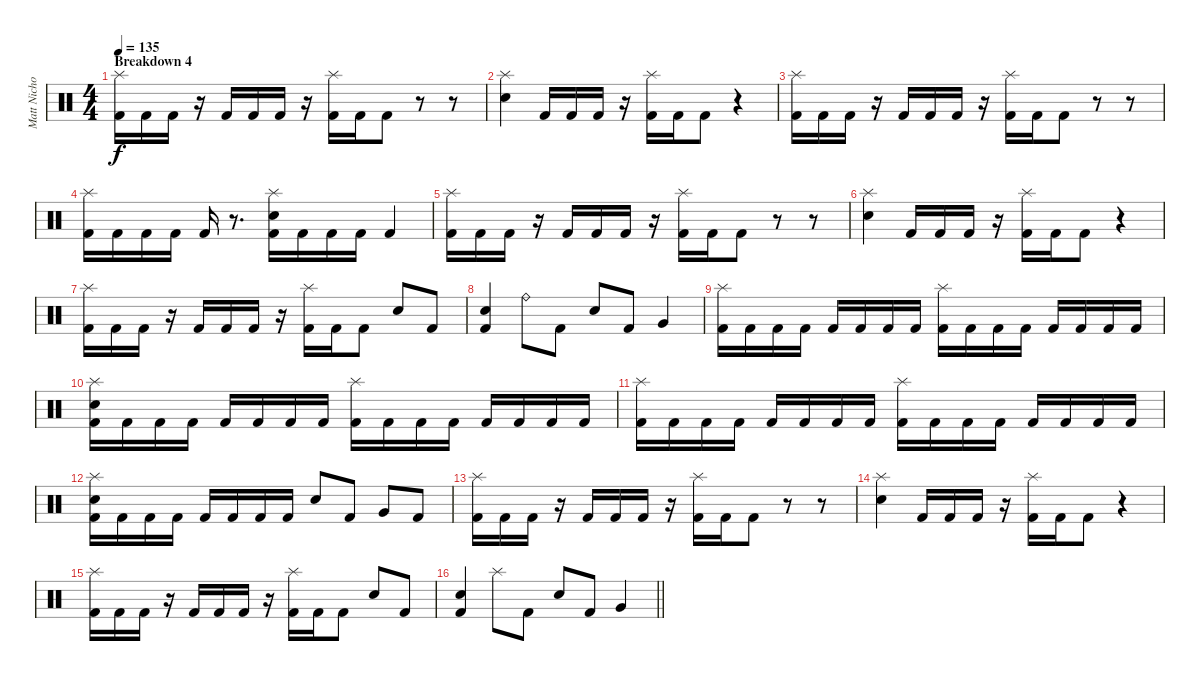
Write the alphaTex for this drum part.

\track ("Matt Nicholls" "Matt Nicho") {instrument percussion}
\staff {score}
\articulation defaults
\ts (4 4)
\section ("" "Breakdown 4")
\tempo 135
\clef neutral
\ks c
("Splash (hit)" "Kick (hit) 2").16{dy f} "Kick (hit) 2".16 "Kick (hit) 2".16 r.16 "Kick (hit) 2".16 "Kick (hit) 2".16 "Kick (hit) 2".16 r.16 ("Splash (hit)" "Kick (hit) 2").16 "Kick (hit) 2".16 "Kick (hit) 2".8 r.8 r.8 |
("Splash (hit)" "Snare (hit) 2").4 "Kick (hit) 2".16 "Kick (hit) 2".16 "Kick (hit) 2".16 r.16 ("Splash (hit)" "Kick (hit) 2").16 "Kick (hit) 2".16 "Kick (hit) 2".8 r.4 |
("Splash (hit)" "Kick (hit) 2").16 "Kick (hit) 2".16 "Kick (hit) 2".16 r.16 "Kick (hit) 2".16 "Kick (hit) 2".16 "Kick (hit) 2".16 r.16 ("Splash (hit)" "Kick (hit) 2").16 "Kick (hit) 2".16 "Kick (hit) 2".8 r.8 r.8 |
("Splash (hit)" "Kick (hit) 2").16 "Kick (hit) 2".16 "Kick (hit) 2".16 "Kick (hit) 2".16 "Kick (hit) 2".16 r.8{d} ("Splash (hit)" "Snare (hit) 2" "Kick (hit) 2").16 "Kick (hit) 2".16 "Kick (hit) 2".16 "Kick (hit) 2".16 "Kick (hit) 2".4 |
("Splash (hit)" "Kick (hit) 2").16 "Kick (hit) 2".16 "Kick (hit) 2".16 r.16 "Kick (hit) 2".16 "Kick (hit) 2".16 "Kick (hit) 2".16 r.16 ("Splash (hit)" "Kick (hit) 2").16 "Kick (hit) 2".16 "Kick (hit) 2".8 r.8 r.8 |
("Splash (hit)" "Snare (hit) 2").4 "Kick (hit) 2".16 "Kick (hit) 2".16 "Kick (hit) 2".16 r.16 ("Splash (hit)" "Kick (hit) 2").16 "Kick (hit) 2".16 "Kick (hit) 2".8 r.4 |
("Splash (hit)" "Kick (hit) 2").16 "Kick (hit) 2".16 "Kick (hit) 2".16 r.16 "Kick (hit) 2".16 "Kick (hit) 2".16 "Kick (hit) 2".16 r.16 ("Splash (hit)" "Kick (hit) 2").16 "Kick (hit) 2".16 "Kick (hit) 2".8 "Snare (hit) 2".8 "Kick (hit) 2".8 |
("Snare (hit) 2" "Kick (hit) 2").4 "Ride (bell)".8 "Kick (hit) 2".8 "Snare (hit) 2".8 "Kick (hit) 2".8 "Very Low Tom (hit)".4 |
("Splash (hit)" "Kick (hit) 2").16 "Kick (hit) 2".16 "Kick (hit) 2".16 "Kick (hit) 2".16 "Kick (hit) 2".16 "Kick (hit) 2".16 "Kick (hit) 2".16 "Kick (hit) 2".16 ("Splash (hit)" "Kick (hit) 2").16 "Kick (hit) 2".16 "Kick (hit) 2".16 "Kick (hit) 2".16 "Kick (hit) 2".16 "Kick (hit) 2".16 "Kick (hit) 2".16 "Kick (hit) 2".16 |
("Splash (hit)" "Snare (hit) 2" "Kick (hit) 2").16 "Kick (hit) 2".16 "Kick (hit) 2".16 "Kick (hit) 2".16 "Kick (hit) 2".16 "Kick (hit) 2".16 "Kick (hit) 2".16 "Kick (hit) 2".16 ("Splash (hit)" "Kick (hit) 2").16 "Kick (hit) 2".16 "Kick (hit) 2".16 "Kick (hit) 2".16 "Kick (hit) 2".16 "Kick (hit) 2".16 "Kick (hit) 2".16 "Kick (hit) 2".16 |
("Splash (hit)" "Kick (hit) 2").16 "Kick (hit) 2".16 "Kick (hit) 2".16 "Kick (hit) 2".16 "Kick (hit) 2".16 "Kick (hit) 2".16 "Kick (hit) 2".16 "Kick (hit) 2".16 ("Splash (hit)" "Kick (hit) 2").16 "Kick (hit) 2".16 "Kick (hit) 2".16 "Kick (hit) 2".16 "Kick (hit) 2".16 "Kick (hit) 2".16 "Kick (hit) 2".16 "Kick (hit) 2".16 |
("Splash (hit)" "Snare (hit) 2" "Kick (hit) 2").16 "Kick (hit) 2".16 "Kick (hit) 2".16 "Kick (hit) 2".16 "Kick (hit) 2".16 "Kick (hit) 2".16 "Kick (hit) 2".16 "Kick (hit) 2".16 "Snare (hit) 2".8 "Kick (hit) 2".8 "Very Low Tom (hit)".8 "Kick (hit) 2".8 |
("Splash (hit)" "Kick (hit) 2").16 "Kick (hit) 2".16 "Kick (hit) 2".16 r.16 "Kick (hit) 2".16 "Kick (hit) 2".16 "Kick (hit) 2".16 r.16 ("Splash (hit)" "Kick (hit) 2").16 "Kick (hit) 2".16 "Kick (hit) 2".8 r.8 r.8 |
("Splash (hit)" "Snare (hit) 2").4 "Kick (hit) 2".16 "Kick (hit) 2".16 "Kick (hit) 2".16 r.16 ("Splash (hit)" "Kick (hit) 2").16 "Kick (hit) 2".16 "Kick (hit) 2".8 r.4 |
("Splash (hit)" "Kick (hit) 2").16 "Kick (hit) 2".16 "Kick (hit) 2".16 r.16 "Kick (hit) 2".16 "Kick (hit) 2".16 "Kick (hit) 2".16 r.16 ("Splash (hit)" "Kick (hit) 2").16 "Kick (hit) 2".16 "Kick (hit) 2".8 "Snare (hit) 2".8 "Kick (hit) 2".8 |
\barLineRight lightlight
("Snare (hit) 2" "Kick (hit) 2").4 "Splash (hit)".8 "Kick (hit) 2".8 "Snare (hit) 2".8 "Kick (hit) 2".8 "Very Low Tom (hit)".4
